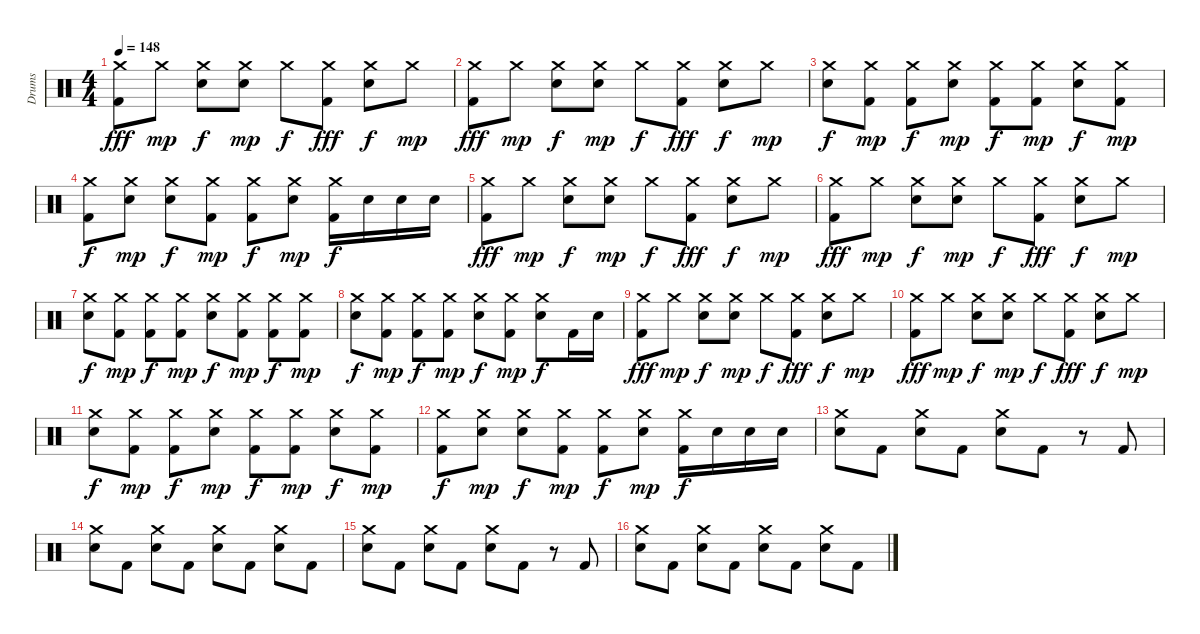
\track ("Drums" "Drums") {instrument percussion}
\staff {score}
\articulation defaults
\ts (4 4)
\tempo 148
\clef neutral
\ks c
("Crash medium (hit)" "Kick (hit) 2").8{dy fff} "Crash medium (hit)".8{dy mp} ("Crash medium (hit)" "Snare (hit) 2").8{dy f} ("Crash medium (hit)" "Snare (hit) 2").8{dy mp} "Crash medium (hit)".8{dy f} ("Crash medium (hit)" "Kick (hit) 2").8{dy fff} ("Crash medium (hit)" "Snare (hit) 2").8{dy f} "Crash medium (hit)".8{dy mp} |
("Crash medium (hit)" "Kick (hit) 2").8{dy fff} "Crash medium (hit)".8{dy mp} ("Crash medium (hit)" "Snare (hit) 2").8{dy f} ("Crash medium (hit)" "Snare (hit) 2").8{dy mp} "Crash medium (hit)".8{dy f} ("Crash medium (hit)" "Kick (hit) 2").8{dy fff} ("Crash medium (hit)" "Snare (hit) 2").8{dy f} "Crash medium (hit)".8{dy mp} |
("Crash medium (hit)" "Snare (hit) 2").8{dy f} ("Crash medium (hit)" "Kick (hit) 2").8{dy mp} ("Crash medium (hit)" "Kick (hit) 2").8{dy f} ("Crash medium (hit)" "Snare (hit) 2").8{dy mp} ("Crash medium (hit)" "Kick (hit) 2").8{dy f} ("Crash medium (hit)" "Kick (hit) 2").8{dy mp} ("Crash medium (hit)" "Snare (hit) 2").8{dy f} ("Crash medium (hit)" "Kick (hit) 2").8{dy mp} |
("Crash medium (hit)" "Kick (hit) 2").8{dy f} ("Crash medium (hit)" "Snare (hit) 2").8{dy mp} ("Crash medium (hit)" "Snare (hit) 2").8{dy f} ("Crash medium (hit)" "Kick (hit) 2").8{dy mp} ("Crash medium (hit)" "Kick (hit) 2").8{dy f} ("Crash medium (hit)" "Snare (hit) 2").8{dy mp} ("Crash medium (hit)" "Kick (hit) 2").16{dy f} "Snare (hit) 2".16 "Snare (hit) 2".16 "Snare (hit) 2".16 |
("Crash medium (hit)" "Kick (hit) 2").8{dy fff} "Crash medium (hit)".8{dy mp} ("Crash medium (hit)" "Snare (hit) 2").8{dy f} ("Crash medium (hit)" "Snare (hit) 2").8{dy mp} "Crash medium (hit)".8{dy f} ("Crash medium (hit)" "Kick (hit) 2").8{dy fff} ("Crash medium (hit)" "Snare (hit) 2").8{dy f} "Crash medium (hit)".8{dy mp} |
("Crash medium (hit)" "Kick (hit) 2").8{dy fff} "Crash medium (hit)".8{dy mp} ("Crash medium (hit)" "Snare (hit) 2").8{dy f} ("Crash medium (hit)" "Snare (hit) 2").8{dy mp} "Crash medium (hit)".8{dy f} ("Crash medium (hit)" "Kick (hit) 2").8{dy fff} ("Crash medium (hit)" "Snare (hit) 2").8{dy f} "Crash medium (hit)".8{dy mp} |
("Crash medium (hit)" "Snare (hit) 2").8{dy f} ("Crash medium (hit)" "Kick (hit) 2").8{dy mp} ("Crash medium (hit)" "Kick (hit) 2").8{dy f} ("Crash medium (hit)" "Kick (hit) 2").8{dy mp} ("Crash medium (hit)" "Snare (hit) 2").8{dy f} ("Crash medium (hit)" "Kick (hit) 2").8{dy mp} ("Crash medium (hit)" "Kick (hit) 2").8{dy f} ("Crash medium (hit)" "Kick (hit) 2").8{dy mp} |
("Crash medium (hit)" "Snare (hit) 2").8{dy f} ("Crash medium (hit)" "Kick (hit) 2").8{dy mp} ("Crash medium (hit)" "Kick (hit) 2").8{dy f} ("Crash medium (hit)" "Kick (hit) 2").8{dy mp} ("Crash medium (hit)" "Snare (hit) 2").8{dy f} ("Crash medium (hit)" "Kick (hit) 2").8{dy mp} ("Crash medium (hit)" "Snare (hit) 2").8{dy f} "Kick (hit) 2".16 "Snare (hit) 2".16 |
("Crash medium (hit)" "Kick (hit) 2").8{dy fff} "Crash medium (hit)".8{dy mp} ("Crash medium (hit)" "Snare (hit) 2").8{dy f} ("Crash medium (hit)" "Snare (hit) 2").8{dy mp} "Crash medium (hit)".8{dy f} ("Crash medium (hit)" "Kick (hit) 2").8{dy fff} ("Crash medium (hit)" "Snare (hit) 2").8{dy f} "Crash medium (hit)".8{dy mp} |
("Crash medium (hit)" "Kick (hit) 2").8{dy fff} "Crash medium (hit)".8{dy mp} ("Crash medium (hit)" "Snare (hit) 2").8{dy f} ("Crash medium (hit)" "Snare (hit) 2").8{dy mp} "Crash medium (hit)".8{dy f} ("Crash medium (hit)" "Kick (hit) 2").8{dy fff} ("Crash medium (hit)" "Snare (hit) 2").8{dy f} "Crash medium (hit)".8{dy mp} |
("Crash medium (hit)" "Snare (hit) 2").8{dy f} ("Crash medium (hit)" "Kick (hit) 2").8{dy mp} ("Crash medium (hit)" "Kick (hit) 2").8{dy f} ("Crash medium (hit)" "Snare (hit) 2").8{dy mp} ("Crash medium (hit)" "Kick (hit) 2").8{dy f} ("Crash medium (hit)" "Kick (hit) 2").8{dy mp} ("Crash medium (hit)" "Snare (hit) 2").8{dy f} ("Crash medium (hit)" "Kick (hit) 2").8{dy mp} |
("Crash medium (hit)" "Kick (hit) 2").8{dy f} ("Crash medium (hit)" "Snare (hit) 2").8{dy mp} ("Crash medium (hit)" "Snare (hit) 2").8{dy f} ("Crash medium (hit)" "Kick (hit) 2").8{dy mp} ("Crash medium (hit)" "Kick (hit) 2").8{dy f} ("Crash medium (hit)" "Snare (hit) 2").8{dy mp} ("Crash medium (hit)" "Kick (hit) 2").16{dy f} "Snare (hit) 2".16 "Snare (hit) 2".16 "Snare (hit) 2".16 |
("Crash medium (hit)" "Snare (hit) 2").8 "Kick (hit) 2".8 ("Crash medium (hit)" "Snare (hit) 2").8 "Kick (hit) 2".8 ("Crash medium (hit)" "Snare (hit) 2").8 "Kick (hit) 2".8 r.8 "Kick (hit) 2".8 |
("Crash medium (hit)" "Snare (hit) 2").8 "Kick (hit) 2".8 ("Crash medium (hit)" "Snare (hit) 2").8 "Kick (hit) 2".8 ("Crash medium (hit)" "Snare (hit) 2").8 "Kick (hit) 2".8 ("Crash medium (hit)" "Snare (hit) 2").8 "Kick (hit) 2".8 |
("Crash medium (hit)" "Snare (hit) 2").8 "Kick (hit) 2".8 ("Crash medium (hit)" "Snare (hit) 2").8 "Kick (hit) 2".8 ("Crash medium (hit)" "Snare (hit) 2").8 "Kick (hit) 2".8 r.8 "Kick (hit) 2".8 |
("Crash medium (hit)" "Snare (hit) 2").8 "Kick (hit) 2".8 ("Crash medium (hit)" "Snare (hit) 2").8 "Kick (hit) 2".8 ("Crash medium (hit)" "Snare (hit) 2").8 "Kick (hit) 2".8 ("Crash medium (hit)" "Snare (hit) 2").8 "Kick (hit) 2".8
